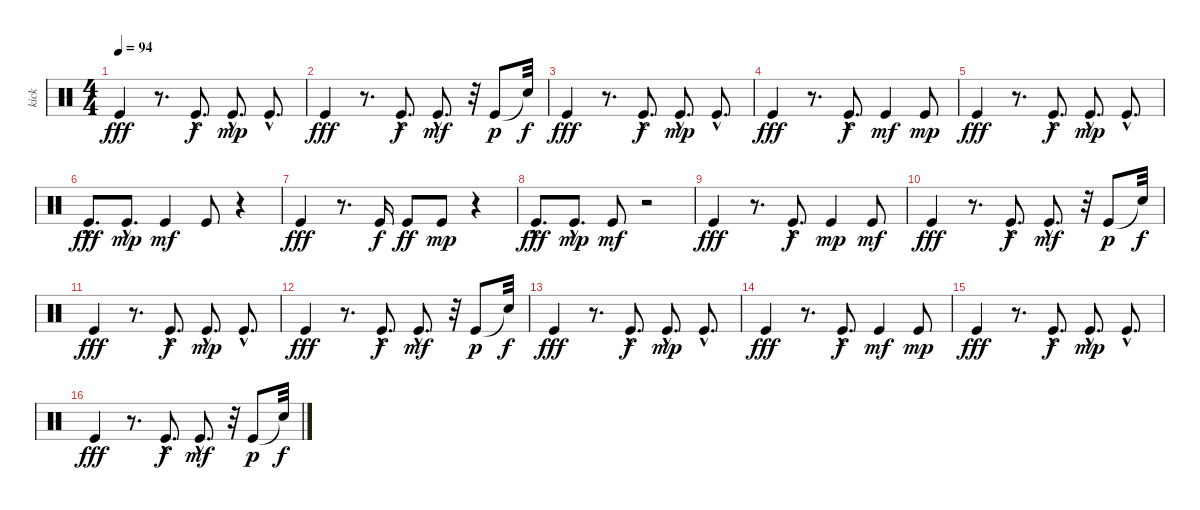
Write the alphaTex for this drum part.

\track ("kick" "kick") {instrument percussion}
\staff {score}
\articulation defaults
\ts (4 4)
\tempo 94
\clef neutral
\ks c "Kick (hit)".4{dy fff}
r.8{d} "Kick (hit)"{hac}.8{d dy f} "Kick (hit)"{hac}.8{d dy mp} "Kick (hit)"{hac}.8{d} |
"Kick (hit)".4{dy fff} r.8{d} "Kick (hit)"{hac}.8{d dy f} "Kick (hit)"{hac}.8{d dy mf} r.32 "Kick (hit)".8{dy p} "Snare (hit)"{t}.32{dy f} |
"Kick (hit)".4{dy fff} r.8{d} "Kick (hit)"{hac}.8{d dy f} "Kick (hit)"{hac}.8{d dy mp} "Kick (hit)"{hac}.8{d} |
"Kick (hit)".4{dy fff} r.8{d} "Kick (hit)"{hac}.8{d dy f} "Kick (hit)".4{dy mf} "Kick (hit)".8{dy mp} |
"Kick (hit)".4{dy fff} r.8{d} "Kick (hit)"{hac}.8{d dy f} "Kick (hit)"{hac}.8{d dy mp} "Kick (hit)"{hac}.8{d} |
"Kick (hit)"{hac}.8{d dy fff} "Kick (hit)"{hac}.8{d dy mp} "Kick (hit)".4{dy mf} "Kick (hit)".8 r.4 |
"Kick (hit)".4{dy fff} r.8{d} "Kick (hit)".16{dy f} "Kick (hit)".8{dy ff} "Kick (hit)".8{dy mp} r.4 |
"Kick (hit)"{hac}.8{d dy fff} "Kick (hit)"{hac}.8{d dy mp} "Kick (hit)".8{dy mf} r.2 |
"Kick (hit)".4{dy fff} r.8{d} "Kick (hit)"{hac}.8{d dy f} "Kick (hit)".4{dy mp} "Kick (hit)".8{dy mf} |
"Kick (hit)".4{dy fff} r.8{d} "Kick (hit)"{hac}.8{d dy f} "Kick (hit)"{hac}.8{d dy mf} r.32 "Kick (hit)".8{dy p} "Snare (hit)"{t}.32{dy f} |
"Kick (hit)".4{dy fff} r.8{d} "Kick (hit)"{hac}.8{d dy f} "Kick (hit)"{hac}.8{d dy mp} "Kick (hit)"{hac}.8{d} |
"Kick (hit)".4{dy fff} r.8{d} "Kick (hit)"{hac}.8{d dy f} "Kick (hit)"{hac}.8{d dy mf} r.32 "Kick (hit)".8{dy p} "Snare (hit)"{t}.32{dy f} |
"Kick (hit)".4{dy fff} r.8{d} "Kick (hit)"{hac}.8{d dy f} "Kick (hit)"{hac}.8{d dy mp} "Kick (hit)"{hac}.8{d} |
"Kick (hit)".4{dy fff} r.8{d} "Kick (hit)"{hac}.8{d dy f} "Kick (hit)".4{dy mf} "Kick (hit)".8{dy mp} |
"Kick (hit)".4{dy fff} r.8{d} "Kick (hit)"{hac}.8{d dy f} "Kick (hit)"{hac}.8{d dy mp} "Kick (hit)"{hac}.8{d} |
"Kick (hit)".4{dy fff} r.8{d} "Kick (hit)"{hac}.8{d dy f} "Kick (hit)"{hac}.8{d dy mf} r.32 "Kick (hit)".8{dy p} "Snare (hit)"{t}.32{dy f}
